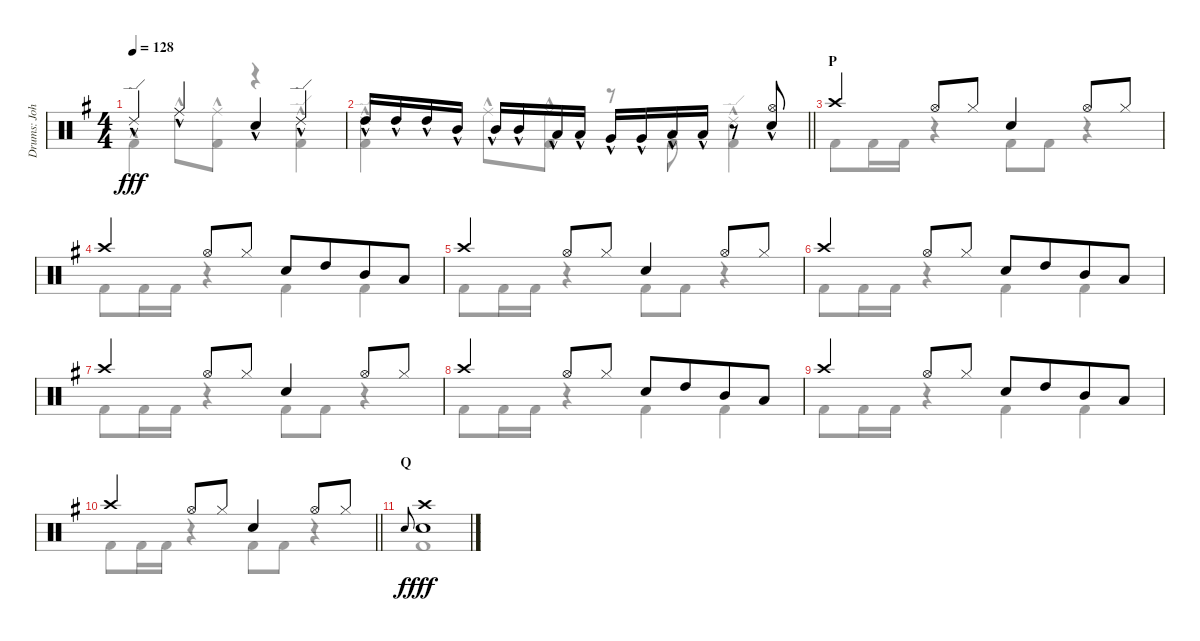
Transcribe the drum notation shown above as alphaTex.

\track ("Drums: John" "Drums: Joh") {instrument percussion}
\staff {score}
\articulation defaults
\voice
\ts (4 4)
\tempo 128
\clef neutral
\ks g "Ride (edge) 2"{hac}.4{dy fff} "Ride (middle)"{hac}.4 "Snare (hit) 2"{hac}.4 "Ride (edge) 2"{hac}.4
|
\barLineRight lightlight "High Tom (hit)"{hac}.16 "High Tom (hit)"{hac}.16 "High Tom (hit)"{hac}.16 "Mid Tom (hit)"{hac}.16 "Mid Tom (hit)"{hac}.16 "Mid Tom (hit)"{hac}.16 "Low Tom (hit)"{hac}.16 "Low Tom (hit)"{hac}.16 "Very Low Tom (hit)"{hac}.16 "Very Low Tom (hit)"{hac}.16 "Low Floor Tom (hit)"{hac}.16 "Low Floor Tom (hit)"{hac}.16
r.8 ("Hi-Hat (open)"{hac} "Snare (hit) 2"{hac}).8 |
\section ("" "P")
"Crash high (hit)".4 "Hi-Hat (open)".8 "Hi-Hat (closed)".8 "Electric Snare (hit)".4 "Hi-Hat (open)".8 "Hi-Hat (closed)".8 |
"Crash high (hit)".4 "Hi-Hat (open)".8 "Hi-Hat (closed)".8 "Electric Snare (hit)".8 "High Tom (hit)".8{beam merge} "Mid Tom (hit)".8 "Low Tom (hit)".8 |
"Crash high (hit)".4 "Hi-Hat (open)".8 "Hi-Hat (closed)".8 "Electric Snare (hit)".4 "Hi-Hat (open)".8 "Hi-Hat (closed)".8 |
"Crash high (hit)".4 "Hi-Hat (open)".8 "Hi-Hat (closed)".8 "Electric Snare (hit)".8 "High Tom (hit)".8{beam merge} "Mid Tom (hit)".8 "Low Tom (hit)".8 |
"Crash high (hit)".4 "Hi-Hat (open)".8 "Hi-Hat (closed)".8 "Electric Snare (hit)".4 "Hi-Hat (open)".8 "Hi-Hat (closed)".8 |
"Crash high (hit)".4 "Hi-Hat (open)".8 "Hi-Hat (closed)".8 "Electric Snare (hit)".8 "High Tom (hit)".8{beam merge} "Mid Tom (hit)".8 "Low Tom (hit)".8 |
"Crash high (hit)".4 "Hi-Hat (open)".8 "Hi-Hat (closed)".8 "Electric Snare (hit)".8 "High Tom (hit)".8{beam merge} "Mid Tom (hit)".8 "Low Tom (hit)".8 |
\barLineRight lightlight "Crash high (hit)".4 "Hi-Hat (open)".8 "Hi-Hat (closed)".8 "Electric Snare (hit)".4 "Hi-Hat (open)".8 "Hi-Hat (closed)".8
|
\section ("" "Q")
"Snare (hit) 2".8{gr onbeat dy f} ("Crash high (hit)" "Electric Snare (hit)").1{dy fff} |
|
|
|
|
\voice
\clef neutral
\ottava regular
\simile none
\ks g "Kick (hit) 2"{hac}.4{dy fff} "Ride (middle)"{hac}.8
("Ride (middle)"{hac} "Kick (hit) 2"{hac}).8 r.4 ("Ride (edge) 2"{hac} "Kick (hit) 2"{hac}).4 |
\barLineRight lightlight
("Ride (edge) 2"{hac} "Kick (hit) 2"{hac}).4 "Ride (middle)"{hac}.8 ("Ride (middle)"{hac} "Kick (hit) 2"{hac}).8 r.8 "Kick (hit) 2"{hac}.8 ("Ride (edge) 2"{hac} "Kick (hit) 2"{hac}).4 |
"Kick (hit) 2".8 "Kick (hit) 2".16 "Kick (hit) 2".16 r.4 "Kick (hit) 2".8 "Kick (hit) 2".8 r.4 |
"Kick (hit) 2".8 "Kick (hit) 2".16 "Kick (hit) 2".16 r.4 "Kick (hit) 2".4 "Kick (hit) 2".4 |
"Kick (hit) 2".8 "Kick (hit) 2".16 "Kick (hit) 2".16 r.4 "Kick (hit) 2".8 "Kick (hit) 2".8 r.4 |
"Kick (hit) 2".8 "Kick (hit) 2".16 "Kick (hit) 2".16 r.4 "Kick (hit) 2".4 "Kick (hit) 2".4 |
"Kick (hit) 2".8 "Kick (hit) 2".16 "Kick (hit) 2".16 r.4 "Kick (hit) 2".8 "Kick (hit) 2".8 r.4 |
"Kick (hit) 2".8 "Kick (hit) 2".16 "Kick (hit) 2".16 r.4 "Kick (hit) 2".4 "Kick (hit) 2".4 |
"Kick (hit) 2".8 "Kick (hit) 2".16 "Kick (hit) 2".16 r.4 "Kick (hit) 2".4 "Kick (hit) 2".4 |
\barLineRight lightlight "Kick (hit) 2".8 "Kick (hit) 2".16 "Kick (hit) 2".16
r.4 "Kick (hit) 2".8 "Kick (hit) 2".8 r.4 |
"Kick (hit) 2".1 |
|
|
|
|
